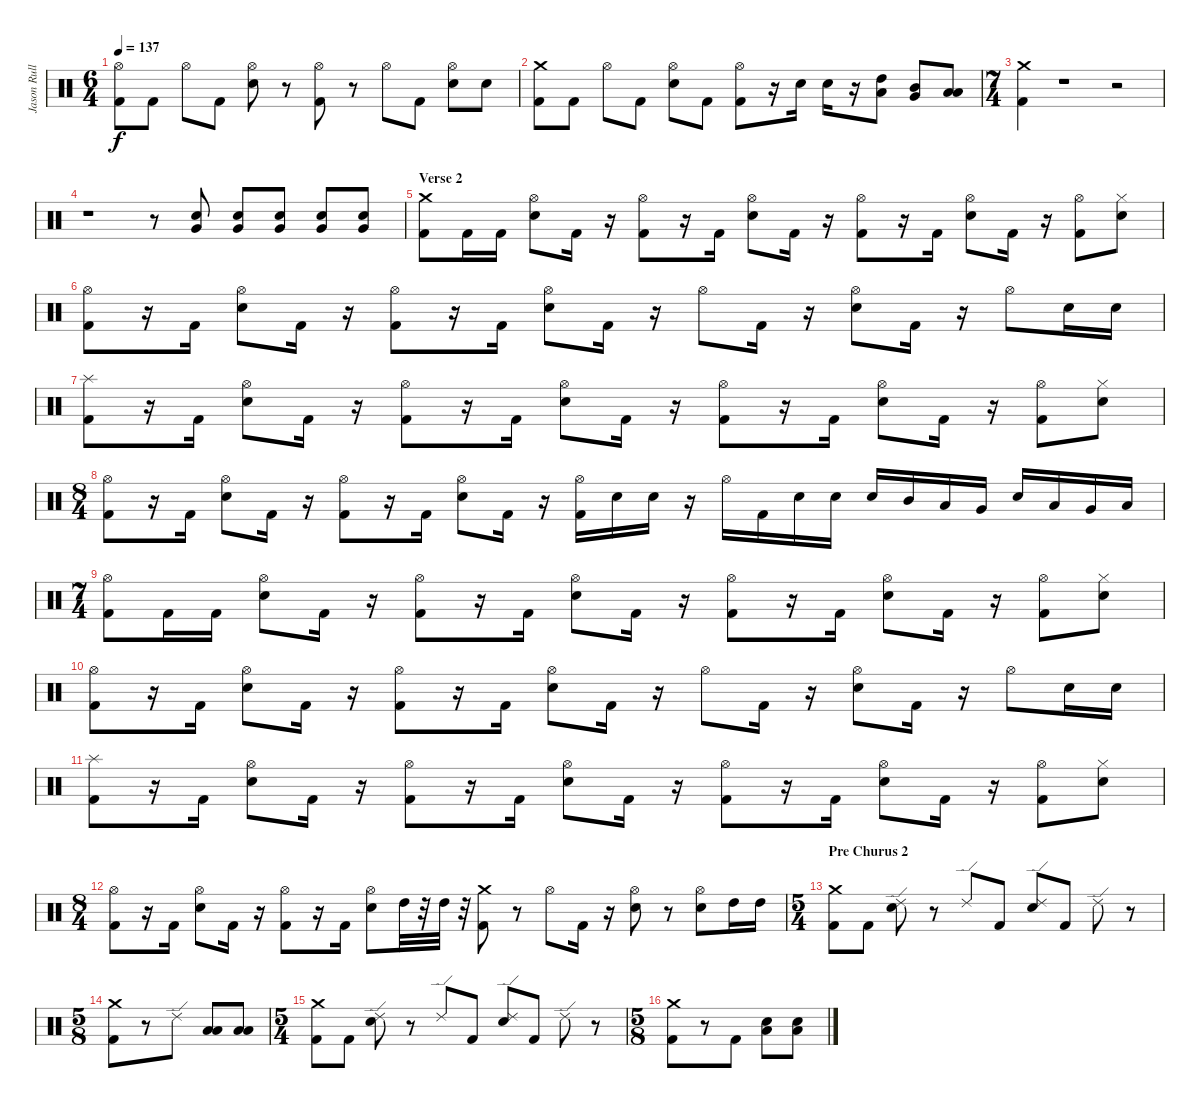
\track ("Jason Rullo" "Jason Rull") {instrument percussion}
\staff {score}
\articulation defaults
\ts (6 4)
\tempo 137
\clef neutral
\ks c
("Hi-Hat (open)" "Kick (hit) 2").8{dy f} "Kick (hit) 2".8 "Hi-Hat (open)".8 "Kick (hit) 2".8 ("Hi-Hat (open)" "Electric Snare (hit)").8 r.8 ("Hi-Hat (open)" "Kick (hit) 2").8 r.8 "Hi-Hat (open)".8 "Kick (hit) 2".8 ("Hi-Hat (open)" "Electric Snare (hit)").8 "Electric Snare (hit)".8 |
("Crash medium (hit)" "Kick (hit) 2").8 "Kick (hit) 2".8 "Hi-Hat (open)".8 "Kick (hit) 2".8 ("Hi-Hat (open)" "Electric Snare (hit)").8 "Kick (hit) 2".8 ("Hi-Hat (open)" "Kick (hit) 2").8 r.16 "Electric Snare (hit)".16 "Electric Snare (hit)".16 r.16 ("High Tom (hit)" "Low Tom (hit)").8 ("Mid Tom (hit)" "Very Low Tom (hit)").8 ("Low Tom (hit)" "Low Floor Tom (hit)").8 |
\ts (7 4)
("Crash medium (hit)" "Kick (hit) 2").4 r.1 r.2 |
r.1 r.8 ("Electric Snare (hit)" "Very Low Tom (hit)").8{volume 5} ("Electric Snare (hit)" "Very Low Tom (hit)").8{volume 7} ("Electric Snare (hit)" "Very Low Tom (hit)").8{volume 9} ("Very Low Tom (hit)" "Electric Snare (hit)").8{volume 11} ("Very Low Tom (hit)" "Electric Snare (hit)").8{volume 14} |
\section ("" "Verse 2")
("Crash medium (hit)" "Kick (hit) 2").8{volume 16} "Kick (hit) 2".16 "Kick (hit) 2".16 ("Hi-Hat (open)" "Electric Snare (hit)").8 "Kick (hit) 2".16 r.16 ("Hi-Hat (open)" "Kick (hit) 2").8 r.16 "Kick (hit) 2".16 ("Hi-Hat (open)" "Electric Snare (hit)").8 "Kick (hit) 2".16 r.16 ("Hi-Hat (open)" "Kick (hit) 2").8 r.16 "Kick (hit) 2".16 ("Hi-Hat (open)" "Electric Snare (hit)").8 "Kick (hit) 2".16 r.16 ("Hi-Hat (open)" "Kick (hit) 2").8 ("Hi-Hat (closed)" "Electric Snare (hit)").8 |
("Hi-Hat (open)" "Kick (hit) 2").8 r.16 "Kick (hit) 2".16 ("Hi-Hat (open)" "Electric Snare (hit)").8 "Kick (hit) 2".16 r.16 ("Hi-Hat (open)" "Kick (hit) 2").8 r.16 "Kick (hit) 2".16 ("Hi-Hat (open)" "Electric Snare (hit)").8 "Kick (hit) 2".16 r.16 "Hi-Hat (open)".8 "Kick (hit) 2".16 r.16 ("Hi-Hat (open)" "Electric Snare (hit)").8 "Kick (hit) 2".16 r.16 "Hi-Hat (open)".8 "Electric Snare (hit)".16 "Electric Snare (hit)".16 |
("Splash (hit)" "Kick (hit) 2").8 r.16 "Kick (hit) 2".16 ("Hi-Hat (open)" "Electric Snare (hit)").8 "Kick (hit) 2".16 r.16 ("Hi-Hat (open)" "Kick (hit) 2").8 r.16 "Kick (hit) 2".16 ("Hi-Hat (open)" "Electric Snare (hit)").8 "Kick (hit) 2".16 r.16 ("Hi-Hat (open)" "Kick (hit) 2").8 r.16 "Kick (hit) 2".16 ("Hi-Hat (open)" "Electric Snare (hit)").8 "Kick (hit) 2".16 r.16 ("Hi-Hat (open)" "Kick (hit) 2").8 ("Hi-Hat (closed)" "Electric Snare (hit)").8 |
\ts (8 4)
("Hi-Hat (open)" "Kick (hit) 2").8 r.16 "Kick (hit) 2".16 ("Hi-Hat (open)" "Electric Snare (hit)").8 "Kick (hit) 2".16 r.16 ("Hi-Hat (open)" "Kick (hit) 2").8 r.16 "Kick (hit) 2".16 ("Hi-Hat (open)" "Electric Snare (hit)").8 "Kick (hit) 2".16 r.16 ("Hi-Hat (open)" "Kick (hit) 2").16 "Electric Snare (hit)".16 "Electric Snare (hit)".16 r.16 "Hi-Hat (open)".16 "Kick (hit) 2".16 "Electric Snare (hit)".16 "Electric Snare (hit)".16 "Electric Snare (hit)".16 "Mid Tom (hit)".16 "Low Tom (hit)".16 "Very Low Tom (hit)".16 "Electric Snare (hit)".16 "Low Tom (hit)".16 "Very Low Tom (hit)".16 "Low Floor Tom (hit)".16 |
\ts (7 4)
("Hi-Hat (open)" "Kick (hit) 2").8 "Kick (hit) 2".16 "Kick (hit) 2".16 ("Hi-Hat (open)" "Electric Snare (hit)").8 "Kick (hit) 2".16 r.16 ("Hi-Hat (open)" "Kick (hit) 2").8 r.16 "Kick (hit) 2".16 ("Hi-Hat (open)" "Electric Snare (hit)").8 "Kick (hit) 2".16 r.16 ("Hi-Hat (open)" "Kick (hit) 2").8 r.16 "Kick (hit) 2".16 ("Hi-Hat (open)" "Electric Snare (hit)").8 "Kick (hit) 2".16 r.16 ("Hi-Hat (open)" "Kick (hit) 2").8 ("Hi-Hat (closed)" "Electric Snare (hit)").8 |
("Hi-Hat (open)" "Kick (hit) 2").8 r.16 "Kick (hit) 2".16 ("Hi-Hat (open)" "Electric Snare (hit)").8 "Kick (hit) 2".16 r.16 ("Hi-Hat (open)" "Kick (hit) 2").8 r.16 "Kick (hit) 2".16 ("Hi-Hat (open)" "Electric Snare (hit)").8 "Kick (hit) 2".16 r.16 "Hi-Hat (open)".8 "Kick (hit) 2".16 r.16 ("Hi-Hat (open)" "Electric Snare (hit)").8 "Kick (hit) 2".16 r.16 "Hi-Hat (open)".8 "Electric Snare (hit)".16 "Electric Snare (hit)".16 |
("Splash (hit)" "Kick (hit) 2").8 r.16 "Kick (hit) 2".16 ("Hi-Hat (open)" "Electric Snare (hit)").8 "Kick (hit) 2".16 r.16 ("Hi-Hat (open)" "Kick (hit) 2").8 r.16 "Kick (hit) 2".16 ("Hi-Hat (open)" "Electric Snare (hit)").8 "Kick (hit) 2".16 r.16 ("Hi-Hat (open)" "Kick (hit) 2").8 r.16 "Kick (hit) 2".16 ("Hi-Hat (open)" "Electric Snare (hit)").8 "Kick (hit) 2".16 r.16 ("Hi-Hat (open)" "Kick (hit) 2").8 ("Hi-Hat (closed)" "Electric Snare (hit)").8 |
\ts (8 4)
("Hi-Hat (open)" "Kick (hit) 2").8 r.16 "Kick (hit) 2".16 ("Hi-Hat (open)" "Electric Snare (hit)").8 "Kick (hit) 2".16 r.16 ("Hi-Hat (open)" "Kick (hit) 2").8 r.16 "Kick (hit) 2".16 ("Hi-Hat (open)" "Electric Snare (hit)").8 "High Tom (hit)".32 r.32 "High Tom (hit)".32 r.32 ("Crash medium (hit)" "Kick (hit) 2").8 r.8 "Hi-Hat (open)".8 "Kick (hit) 2".16 r.16 ("Hi-Hat (open)" "Electric Snare (hit)").8 r.8 ("Hi-Hat (open)" "Electric Snare (hit)").8 "High Tom (hit)".16 "High Tom (hit)".16 |
\ts (5 4)
\section ("" "Pre Churus 2")
("Crash medium (hit)" "Kick (hit) 2").8 "Kick (hit) 2".8 ("Ride (edge) 2" "Electric Snare (hit)").8 r.8 "Ride (edge) 2".8 "Kick (hit) 2".8 ("Ride (edge) 2" "Electric Snare (hit)").8 "Kick (hit) 2".8 "Ride (edge) 2".8 r.8 |
\ts (5 8)
("Crash medium (hit)" "Kick (hit) 2").8 r.8 "Ride (edge) 2".8 ("Low Floor Tom (hit)" "Low Tom (hit)").8 ("Low Floor Tom (hit)" "Low Tom (hit)").8 |
\ts (5 4)
("Crash medium (hit)" "Kick (hit) 2").8 "Kick (hit) 2".8 ("Ride (edge) 2" "Electric Snare (hit)").8 r.8 "Ride (edge) 2".8 "Kick (hit) 2".8 ("Ride (edge) 2" "Electric Snare (hit)").8 "Kick (hit) 2".8 "Ride (edge) 2".8 r.8 |
\ts (5 8)
("Crash medium (hit)" "Kick (hit) 2").8 r.8 "Kick (hit) 2".8 ("Electric Snare (hit)" "Low Tom (hit)").8 ("Electric Snare (hit)" "Low Tom (hit)").8
